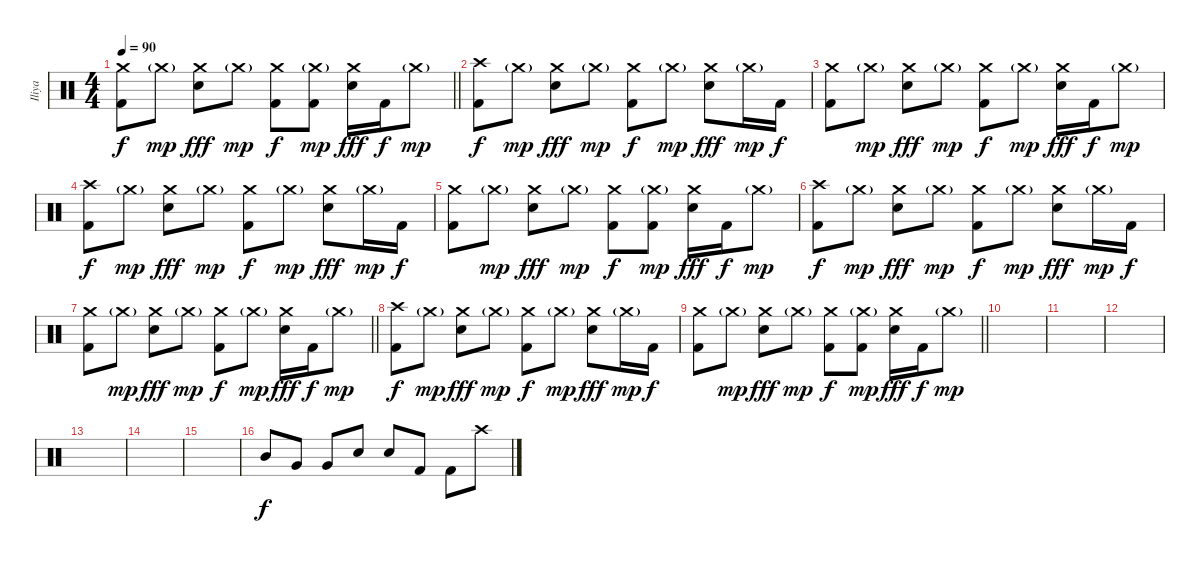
\track ("Iliya" "Iliya") {instrument percussion}
\staff {score}
\articulation defaults
\ts (4 4)
\tempo 90
\clef neutral
\barLineRight lightlight
\ks c
("Crash medium (hit)" "Kick (hit) 2").8{dy f} "Crash medium (hit)"{g}.8{dy mp} ("Crash medium (hit)" "Snare (hit) 2").8{dy fff} "Crash medium (hit)"{g}.8{dy mp} ("Crash medium (hit)" "Kick (hit) 2").8{dy f} ("Crash medium (hit)"{g} "Kick (hit) 2").8{dy mp} ("Crash medium (hit)" "Snare (hit) 2").16{dy fff} "Kick (hit) 2".16{dy f} "Crash medium (hit)"{g}.8{dy mp} |
("Crash high (hit)" "Kick (hit) 2").8{dy f} "Crash medium (hit)"{g}.8{dy mp} ("Crash medium (hit)" "Snare (hit) 2").8{dy fff} "Crash medium (hit)"{g}.8{dy mp} ("Crash medium (hit)" "Kick (hit) 2").8{dy f} "Crash medium (hit)"{g}.8{dy mp} ("Crash medium (hit)" "Snare (hit) 2").8{dy fff} "Crash medium (hit)"{g}.16{dy mp} "Kick (hit) 2".16{dy f} |
("Crash medium (hit)" "Kick (hit) 2").8 "Crash medium (hit)"{g}.8{dy mp} ("Crash medium (hit)" "Snare (hit) 2").8{dy fff} "Crash medium (hit)"{g}.8{dy mp} ("Crash medium (hit)" "Kick (hit) 2").8{dy f} "Crash medium (hit)"{g}.8{dy mp} ("Crash medium (hit)" "Snare (hit) 2").16{dy fff} "Kick (hit) 2".16{dy f} "Crash medium (hit)"{g}.8{dy mp} |
("Crash high (hit)" "Kick (hit) 2").8{dy f} "Crash medium (hit)"{g}.8{dy mp} ("Crash medium (hit)" "Snare (hit) 2").8{dy fff} "Crash medium (hit)"{g}.8{dy mp} ("Crash medium (hit)" "Kick (hit) 2").8{dy f} "Crash medium (hit)"{g}.8{dy mp} ("Crash medium (hit)" "Snare (hit) 2").8{dy fff} "Crash medium (hit)"{g}.16{dy mp} "Kick (hit) 2".16{dy f} |
("Crash medium (hit)" "Kick (hit) 2").8 "Crash medium (hit)"{g}.8{dy mp} ("Crash medium (hit)" "Snare (hit) 2").8{dy fff} "Crash medium (hit)"{g}.8{dy mp} ("Crash medium (hit)" "Kick (hit) 2").8{dy f} ("Crash medium (hit)"{g} "Kick (hit) 2").8{dy mp} ("Crash medium (hit)" "Snare (hit) 2").16{dy fff} "Kick (hit) 2".16{dy f} "Crash medium (hit)"{g}.8{dy mp} |
("Crash high (hit)" "Kick (hit) 2").8{dy f} "Crash medium (hit)"{g}.8{dy mp} ("Crash medium (hit)" "Snare (hit) 2").8{dy fff} "Crash medium (hit)"{g}.8{dy mp} ("Crash medium (hit)" "Kick (hit) 2").8{dy f} "Crash medium (hit)"{g}.8{dy mp} ("Crash medium (hit)" "Snare (hit) 2").8{dy fff} "Crash medium (hit)"{g}.16{dy mp} "Kick (hit) 2".16{dy f} |
\barLineRight lightlight
("Crash medium (hit)" "Kick (hit) 2").8 "Crash medium (hit)"{g}.8{dy mp} ("Crash medium (hit)" "Snare (hit) 2").8{dy fff} "Crash medium (hit)"{g}.8{dy mp} ("Crash medium (hit)" "Kick (hit) 2").8{dy f} "Crash medium (hit)"{g}.8{dy mp} ("Crash medium (hit)" "Snare (hit) 2").16{dy fff} "Kick (hit) 2".16{dy f} "Crash medium (hit)"{g}.8{dy mp} |
("Crash high (hit)" "Kick (hit) 2").8{dy f} "Crash medium (hit)"{g}.8{dy mp} ("Crash medium (hit)" "Snare (hit) 2").8{dy fff} "Crash medium (hit)"{g}.8{dy mp} ("Crash medium (hit)" "Kick (hit) 2").8{dy f} "Crash medium (hit)"{g}.8{dy mp} ("Crash medium (hit)" "Snare (hit) 2").8{dy fff} "Crash medium (hit)"{g}.16{dy mp} "Kick (hit) 2".16{dy f} |
\barLineRight lightlight
("Crash medium (hit)" "Kick (hit) 2").8 "Crash medium (hit)"{g}.8{dy mp} ("Crash medium (hit)" "Snare (hit) 2").8{dy fff} "Crash medium (hit)"{g}.8{dy mp} ("Crash medium (hit)" "Kick (hit) 2").8{dy f} ("Crash medium (hit)"{g} "Kick (hit) 2").8{dy mp} ("Crash medium (hit)" "Snare (hit) 2").16{dy fff} "Kick (hit) 2".16{dy f} "Crash medium (hit)"{g}.8{dy mp} |
|
|
|
|
|
|
"Mid Tom (hit)".8{dy f} "Very Low Tom (hit)".8 "Very Low Tom (hit)".8 "Snare (hit) 2".8 "Snare (hit) 2".8 "Kick (hit) 2".8 "Kick (hit) 2".8 "Crash high (hit)".8
